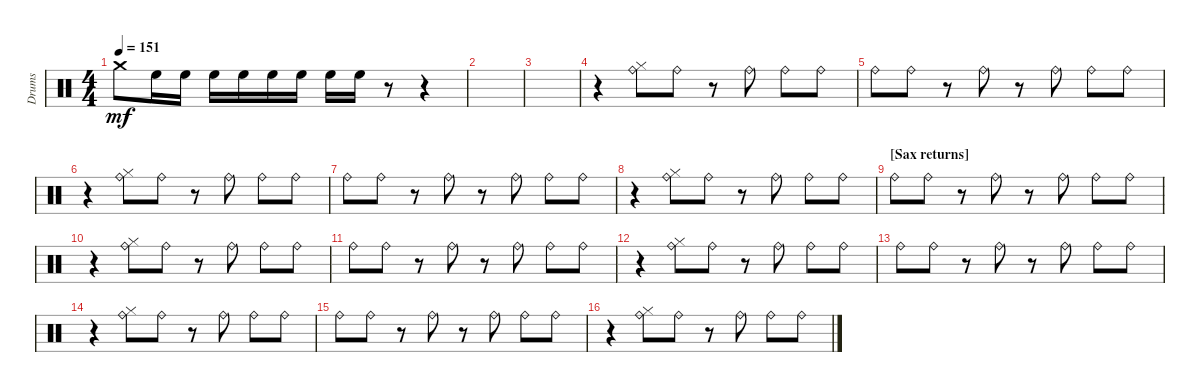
\bracketExtendMode groupsimilarinstruments
\track ("Drumkit" "Drums") {instrument percussion}
\staff {score}
\articulation defaults
\ts (4 4)
\tempo 151
\clef neutral
\ks aminor "Crash medium (hit)"{t}.8{dy mf} "High Floor Tom (hit)".16 "High Floor Tom (hit)".16 "High Floor Tom (hit)".16 "High Floor Tom (hit)".16 "High Floor Tom (hit)".16 "High Floor Tom (hit)".16 "High Floor Tom (hit)".16 "High Floor Tom (hit)".16
r.8 r.4 |
|
|
r.4 ("Ride (bell)" "Hi-Hat (closed)").8 "Ride (bell)".8 r.8 "Ride (bell)".8 "Ride (bell)".8 "Ride (bell)".8 |
"Ride (bell)".8 "Ride (bell)".8 r.8 "Ride (bell)".8 r.8 "Ride (bell)".8 "Ride (bell)".8 "Ride (bell)".8 |
r.4 ("Ride (bell)" "Hi-Hat (closed)").8 "Ride (bell)".8 r.8 "Ride (bell)".8 "Ride (bell)".8 "Ride (bell)".8 |
"Ride (bell)".8 "Ride (bell)".8 r.8 "Ride (bell)".8 r.8 "Ride (bell)".8 "Ride (bell)".8 "Ride (bell)".8 |
r.4 ("Ride (bell)" "Hi-Hat (closed)").8 "Ride (bell)".8 r.8 "Ride (bell)".8 "Ride (bell)".8 "Ride (bell)".8 |
\section ("" "[Sax returns]")
"Ride (bell)".8 "Ride (bell)".8 r.8 "Ride (bell)".8 r.8 "Ride (bell)".8 "Ride (bell)".8 "Ride (bell)".8 |
r.4 ("Ride (bell)" "Hi-Hat (closed)").8 "Ride (bell)".8 r.8 "Ride (bell)".8 "Ride (bell)".8 "Ride (bell)".8 |
"Ride (bell)".8 "Ride (bell)".8 r.8 "Ride (bell)".8 r.8 "Ride (bell)".8 "Ride (bell)".8 "Ride (bell)".8 |
r.4 ("Ride (bell)" "Hi-Hat (closed)").8 "Ride (bell)".8 r.8 "Ride (bell)".8 "Ride (bell)".8 "Ride (bell)".8 |
"Ride (bell)".8 "Ride (bell)".8 r.8 "Ride (bell)".8 r.8 "Ride (bell)".8 "Ride (bell)".8 "Ride (bell)".8 |
r.4 ("Ride (bell)" "Hi-Hat (closed)").8 "Ride (bell)".8 r.8 "Ride (bell)".8 "Ride (bell)".8 "Ride (bell)".8 |
"Ride (bell)".8 "Ride (bell)".8 r.8 "Ride (bell)".8 r.8 "Ride (bell)".8 "Ride (bell)".8 "Ride (bell)".8 |
r.4 ("Ride (bell)" "Hi-Hat (closed)").8 "Ride (bell)".8 r.8 "Ride (bell)".8 "Ride (bell)".8 "Ride (bell)".8
